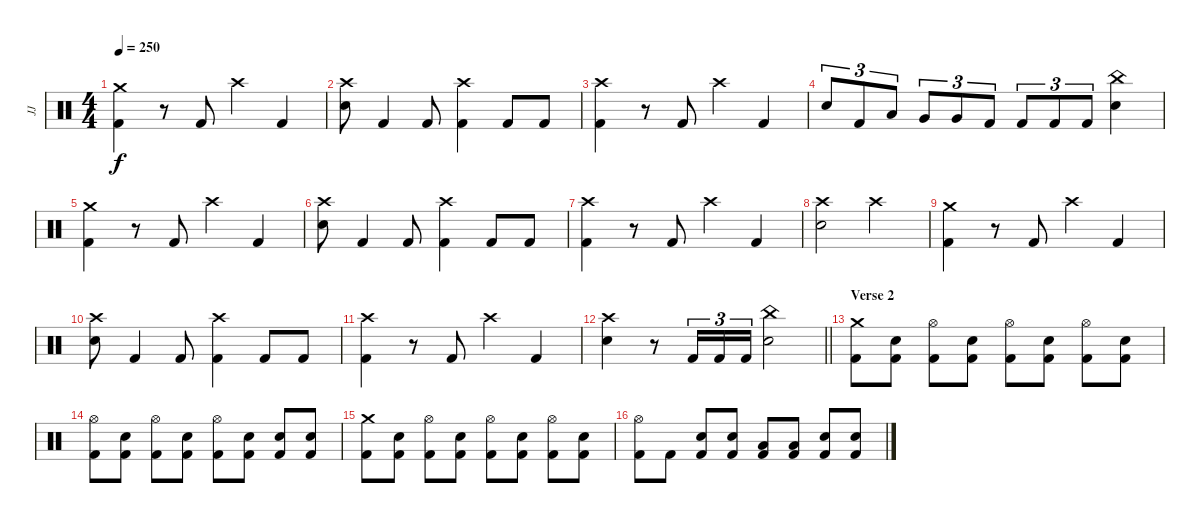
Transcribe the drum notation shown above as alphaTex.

\track ("JJ" "JJ") {instrument percussion}
\staff {score}
\articulation defaults
\ts (4 4)
\tempo 250
\clef neutral
\ks c
("Crash medium (hit)" "Kick (hit) 2").4{dy f} r.8 "Kick (hit) 2".8 "Crash high (hit)".4 "Kick (hit) 2".4 |
("Crash high (hit)" "Electric Snare (hit)").8 "Kick (hit) 2".4 "Kick (hit) 2".8 ("Crash high (hit)" "Kick (hit) 2").4 "Kick (hit) 2".8 "Kick (hit) 2".8 |
("Crash high (hit)" "Kick (hit) 2").4 r.8 "Kick (hit) 2".8 "Crash high (hit)".4 "Kick (hit) 2".4 |
"Electric Snare (hit)".8{tu (3 2)} "Kick (hit) 2".8{tu (3 2)} "Low Floor Tom (hit)".8{tu (3 2)} "Very Low Tom (hit)".8{tu (3 2)} "Very Low Tom (hit)".8{tu (3 2)} "Kick (hit) 2".8{tu (3 2)} "Kick (hit) 2".8{tu (3 2)} "Kick (hit) 2".8{tu (3 2)} "Kick (hit) 2".8{tu (3 2)} ("China (hit)" "Electric Snare (hit)").4 |
("Crash medium (hit)" "Kick (hit) 2").4 r.8 "Kick (hit) 2".8 "Crash high (hit)".4 "Kick (hit) 2".4 |
("Crash high (hit)" "Electric Snare (hit)").8 "Kick (hit) 2".4 "Kick (hit) 2".8 ("Crash high (hit)" "Kick (hit) 2").4 "Kick (hit) 2".8 "Kick (hit) 2".8 |
("Crash high (hit)" "Kick (hit) 2").4 r.8 "Kick (hit) 2".8 "Crash high (hit)".4 "Kick (hit) 2".4 |
("Crash high (hit)" "Electric Snare (hit)").2 "Crash high (hit)".2 |
("Crash medium (hit)" "Kick (hit) 2").4 r.8 "Kick (hit) 2".8 "Crash high (hit)".4 "Kick (hit) 2".4 |
("Crash high (hit)" "Electric Snare (hit)").8 "Kick (hit) 2".4 "Kick (hit) 2".8 ("Crash high (hit)" "Kick (hit) 2").4 "Kick (hit) 2".8 "Kick (hit) 2".8 |
("Crash high (hit)" "Kick (hit) 2").4 r.8 "Kick (hit) 2".8 "Crash high (hit)".4 "Kick (hit) 2".4 |
\barLineRight lightlight
("Crash high (hit)" "Electric Snare (hit)").4 r.8 "Kick (hit) 2".16{tu (3 2)} "Kick (hit) 2".16{tu (3 2)} "Kick (hit) 2".16{tu (3 2)} ("China (hit)" "Electric Snare (hit)").2 |
\section ("" "Verse 2")
("Crash medium (hit)" "Kick (hit) 2").8 ("Electric Snare (hit)" "Kick (hit) 2").8 ("Hi-Hat (open)" "Kick (hit) 2").8 ("Electric Snare (hit)" "Kick (hit) 2").8 ("Hi-Hat (open)" "Kick (hit) 2").8 ("Electric Snare (hit)" "Kick (hit) 2").8 ("Hi-Hat (open)" "Kick (hit) 2").8 ("Electric Snare (hit)" "Kick (hit) 2").8 |
("Hi-Hat (open)" "Kick (hit) 2").8 ("Electric Snare (hit)" "Kick (hit) 2").8 ("Hi-Hat (open)" "Kick (hit) 2").8 ("Electric Snare (hit)" "Kick (hit) 2").8 ("Hi-Hat (open)" "Kick (hit) 2").8 ("Electric Snare (hit)" "Kick (hit) 2").8 ("Electric Snare (hit)" "Kick (hit) 2").8 ("Electric Snare (hit)" "Kick (hit) 2").8 |
("Crash medium (hit)" "Kick (hit) 2").8 ("Electric Snare (hit)" "Kick (hit) 2").8 ("Hi-Hat (open)" "Kick (hit) 2").8 ("Electric Snare (hit)" "Kick (hit) 2").8 ("Hi-Hat (open)" "Kick (hit) 2").8 ("Electric Snare (hit)" "Kick (hit) 2").8 ("Hi-Hat (open)" "Kick (hit) 2").8 ("Electric Snare (hit)" "Kick (hit) 2").8 |
("Hi-Hat (open)" "Kick (hit) 2").8 "Kick (hit) 2".8 ("Electric Snare (hit)" "Kick (hit) 2").8 ("Electric Snare (hit)" "Kick (hit) 2").8 ("Low Floor Tom (hit)" "Kick (hit) 2").8 ("Low Floor Tom (hit)" "Kick (hit) 2").8 ("Electric Snare (hit)" "Kick (hit) 2").8 ("Electric Snare (hit)" "Kick (hit) 2").8
